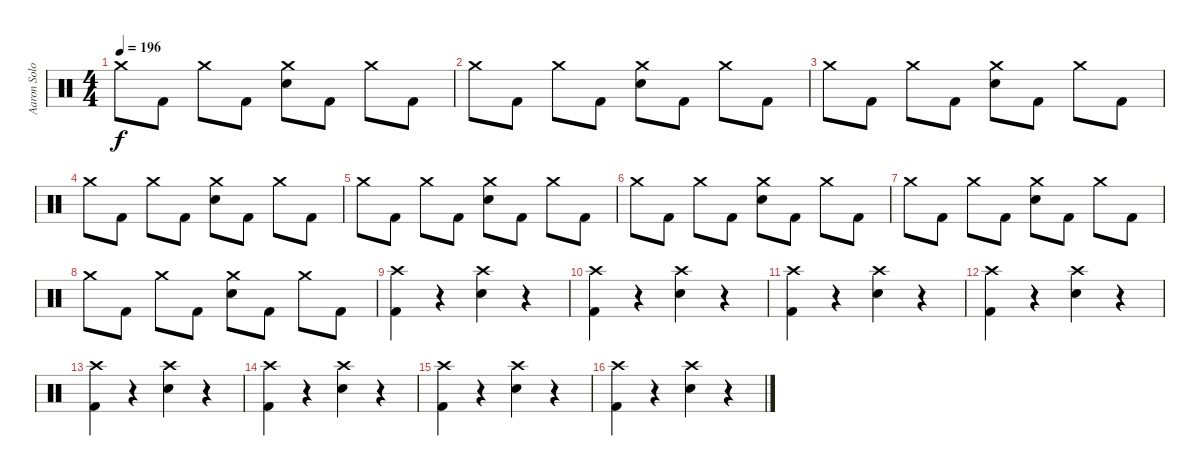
\track ("Aaron Solowoniuk" "Aaron Solo") {instrument percussion}
\staff {score}
\articulation defaults
\ts (4 4)
\tempo 196
\clef neutral
\ks c "Crash medium (hit)".8{dy f} "Kick (hit) 2".8 "Crash medium (hit)".8 "Kick (hit) 2".8
("Crash medium (hit)" "Electric Snare (hit)").8 "Kick (hit) 2".8 "Crash medium (hit)".8 "Kick (hit) 2".8 |
"Crash medium (hit)".8 "Kick (hit) 2".8 "Crash medium (hit)".8 "Kick (hit) 2".8 ("Crash medium (hit)" "Electric Snare (hit)").8 "Kick (hit) 2".8 "Crash medium (hit)".8 "Kick (hit) 2".8 |
"Crash medium (hit)".8 "Kick (hit) 2".8 "Crash medium (hit)".8 "Kick (hit) 2".8 ("Crash medium (hit)" "Electric Snare (hit)").8 "Kick (hit) 2".8 "Crash medium (hit)".8 "Kick (hit) 2".8 |
"Crash medium (hit)".8 "Kick (hit) 2".8 "Crash medium (hit)".8 "Kick (hit) 2".8 ("Crash medium (hit)" "Electric Snare (hit)").8 "Kick (hit) 2".8 "Crash medium (hit)".8 "Kick (hit) 2".8 |
"Crash medium (hit)".8 "Kick (hit) 2".8 "Crash medium (hit)".8 "Kick (hit) 2".8 ("Crash medium (hit)" "Electric Snare (hit)").8 "Kick (hit) 2".8 "Crash medium (hit)".8 "Kick (hit) 2".8 |
"Crash medium (hit)".8 "Kick (hit) 2".8 "Crash medium (hit)".8 "Kick (hit) 2".8 ("Crash medium (hit)" "Electric Snare (hit)").8 "Kick (hit) 2".8 "Crash medium (hit)".8 "Kick (hit) 2".8 |
"Crash medium (hit)".8 "Kick (hit) 2".8 "Crash medium (hit)".8 "Kick (hit) 2".8 ("Crash medium (hit)" "Electric Snare (hit)").8 "Kick (hit) 2".8 "Crash medium (hit)".8 "Kick (hit) 2".8 |
"Crash medium (hit)".8 "Kick (hit) 2".8 "Crash medium (hit)".8 "Kick (hit) 2".8 ("Crash medium (hit)" "Electric Snare (hit)").8 "Kick (hit) 2".8 "Crash medium (hit)".8 "Kick (hit) 2".8 |
("Crash high (hit)" "Kick (hit) 2").4 r.4 ("Crash high (hit)" "Electric Snare (hit)").4 r.4 |
("Crash high (hit)" "Kick (hit) 2").4 r.4 ("Crash high (hit)" "Electric Snare (hit)").4 r.4 |
("Crash high (hit)" "Kick (hit) 2").4 r.4 ("Crash high (hit)" "Electric Snare (hit)").4 r.4 |
("Crash high (hit)" "Kick (hit) 2").4 r.4 ("Crash high (hit)" "Electric Snare (hit)").4 r.4 |
("Crash high (hit)" "Kick (hit) 2").4 r.4 ("Crash high (hit)" "Electric Snare (hit)").4 r.4 |
("Crash high (hit)" "Kick (hit) 2").4 r.4 ("Crash high (hit)" "Electric Snare (hit)").4 r.4 |
("Crash high (hit)" "Kick (hit) 2").4 r.4 ("Crash high (hit)" "Electric Snare (hit)").4 r.4 |
("Crash high (hit)" "Kick (hit) 2").4 r.4 ("Crash high (hit)" "Electric Snare (hit)").4 r.4
